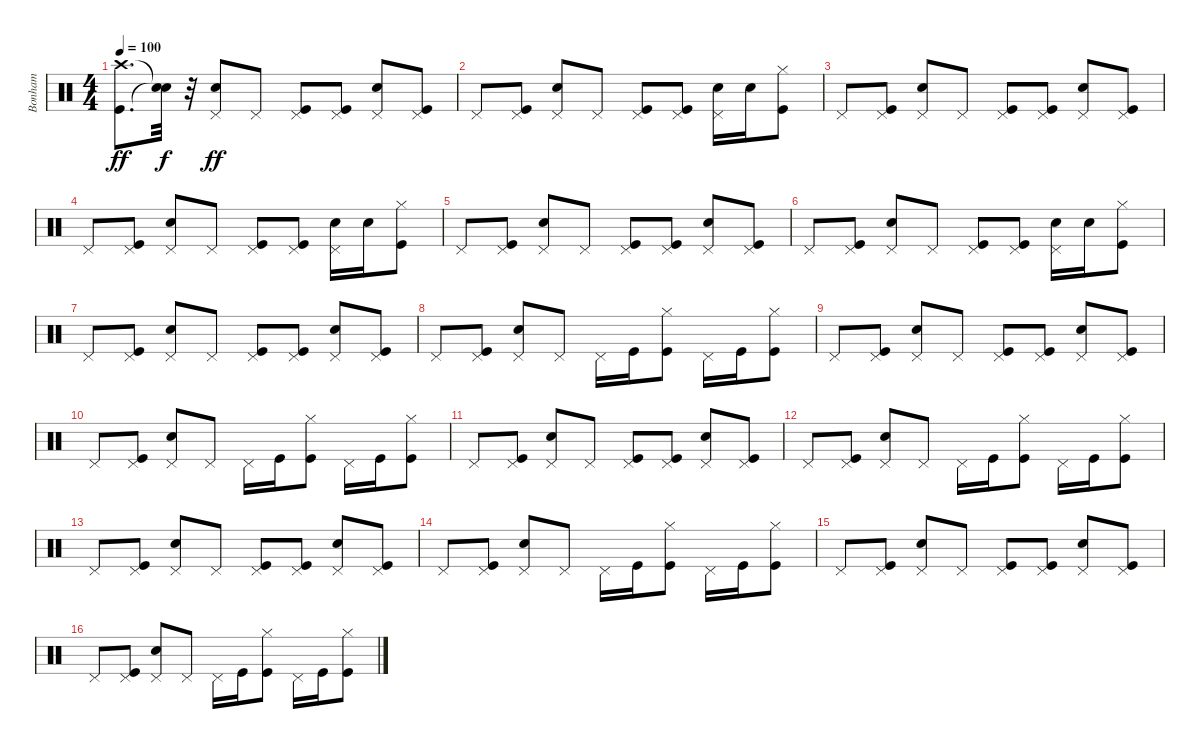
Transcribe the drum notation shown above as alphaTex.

\track ("Bonham" "Bonham") {instrument percussion}
\staff {score}
\articulation defaults
\ts (4 4)
\tempo 100
\clef neutral
\ks c
("Kick (hit)" "Crash high (hit)").8{d dy ff} ("Snare (hit)"{t} "Snare (hit)"{t}).32{dy f} r.32 ("Snare (hit) 2" "Pedal Hi-Hat (hit)").8{dy ff} "Pedal Hi-Hat (hit)".8 ("Kick (hit)" "Pedal Hi-Hat (hit)").8 ("Kick (hit)" "Pedal Hi-Hat (hit)").8 ("Snare (hit) 2" "Pedal Hi-Hat (hit)").8 ("Kick (hit)" "Pedal Hi-Hat (hit)").8 |
"Pedal Hi-Hat (hit)".8 ("Kick (hit)" "Pedal Hi-Hat (hit)").8 ("Snare (hit) 2" "Pedal Hi-Hat (hit)").8 "Pedal Hi-Hat (hit)".8 ("Kick (hit)" "Pedal Hi-Hat (hit)").8 ("Kick (hit)" "Pedal Hi-Hat (hit)").8 ("Snare (hit) 2" "Pedal Hi-Hat (hit)").16 "Snare (hit) 2".16 ("Kick (hit)" "Hi-Hat (closed)").8 |
"Pedal Hi-Hat (hit)".8 ("Kick (hit)" "Pedal Hi-Hat (hit)").8 ("Snare (hit) 2" "Pedal Hi-Hat (hit)").8 "Pedal Hi-Hat (hit)".8 ("Kick (hit)" "Pedal Hi-Hat (hit)").8 ("Kick (hit)" "Pedal Hi-Hat (hit)").8 ("Snare (hit) 2" "Pedal Hi-Hat (hit)").8 ("Kick (hit)" "Pedal Hi-Hat (hit)").8 |
"Pedal Hi-Hat (hit)".8 ("Kick (hit)" "Pedal Hi-Hat (hit)").8 ("Snare (hit) 2" "Pedal Hi-Hat (hit)").8 "Pedal Hi-Hat (hit)".8 ("Kick (hit)" "Pedal Hi-Hat (hit)").8 ("Kick (hit)" "Pedal Hi-Hat (hit)").8 ("Snare (hit) 2" "Pedal Hi-Hat (hit)").16 "Snare (hit) 2".16 ("Kick (hit)" "Hi-Hat (closed)").8 |
"Pedal Hi-Hat (hit)".8 ("Kick (hit)" "Pedal Hi-Hat (hit)").8 ("Snare (hit) 2" "Pedal Hi-Hat (hit)").8 "Pedal Hi-Hat (hit)".8 ("Kick (hit)" "Pedal Hi-Hat (hit)").8 ("Kick (hit)" "Pedal Hi-Hat (hit)").8 ("Snare (hit) 2" "Pedal Hi-Hat (hit)").8 ("Kick (hit)" "Pedal Hi-Hat (hit)").8 |
"Pedal Hi-Hat (hit)".8 ("Kick (hit)" "Pedal Hi-Hat (hit)").8 ("Snare (hit) 2" "Pedal Hi-Hat (hit)").8 "Pedal Hi-Hat (hit)".8 ("Kick (hit)" "Pedal Hi-Hat (hit)").8 ("Kick (hit)" "Pedal Hi-Hat (hit)").8 ("Snare (hit) 2" "Pedal Hi-Hat (hit)").16 "Snare (hit) 2".16 ("Kick (hit)" "Hi-Hat (closed)").8 |
"Pedal Hi-Hat (hit)".8 ("Kick (hit)" "Pedal Hi-Hat (hit)").8 ("Snare (hit) 2" "Pedal Hi-Hat (hit)").8 "Pedal Hi-Hat (hit)".8 ("Kick (hit)" "Pedal Hi-Hat (hit)").8 ("Kick (hit)" "Pedal Hi-Hat (hit)").8 ("Snare (hit) 2" "Pedal Hi-Hat (hit)").8 ("Kick (hit)" "Pedal Hi-Hat (hit)").8 |
"Pedal Hi-Hat (hit)".8 ("Kick (hit)" "Pedal Hi-Hat (hit)").8 ("Snare (hit) 2" "Pedal Hi-Hat (hit)").8 "Pedal Hi-Hat (hit)".8 "Pedal Hi-Hat (hit)".16 "Kick (hit)".16 ("Kick (hit)" "Hi-Hat (closed)").8 "Pedal Hi-Hat (hit)".16 "Kick (hit)".16 ("Kick (hit)" "Hi-Hat (closed)").8 |
"Pedal Hi-Hat (hit)".8 ("Kick (hit)" "Pedal Hi-Hat (hit)").8 ("Snare (hit) 2" "Pedal Hi-Hat (hit)").8 "Pedal Hi-Hat (hit)".8 ("Kick (hit)" "Pedal Hi-Hat (hit)").8 ("Kick (hit)" "Pedal Hi-Hat (hit)").8 ("Snare (hit) 2" "Pedal Hi-Hat (hit)").8 ("Kick (hit)" "Pedal Hi-Hat (hit)").8 |
"Pedal Hi-Hat (hit)".8 ("Kick (hit)" "Pedal Hi-Hat (hit)").8 ("Snare (hit) 2" "Pedal Hi-Hat (hit)").8 "Pedal Hi-Hat (hit)".8 "Pedal Hi-Hat (hit)".16 "Kick (hit)".16 ("Kick (hit)" "Hi-Hat (closed)").8 "Pedal Hi-Hat (hit)".16 "Kick (hit)".16 ("Kick (hit)" "Hi-Hat (closed)").8 |
"Pedal Hi-Hat (hit)".8 ("Kick (hit)" "Pedal Hi-Hat (hit)").8 ("Snare (hit) 2" "Pedal Hi-Hat (hit)").8 "Pedal Hi-Hat (hit)".8 ("Kick (hit)" "Pedal Hi-Hat (hit)").8 ("Kick (hit)" "Pedal Hi-Hat (hit)").8 ("Snare (hit) 2" "Pedal Hi-Hat (hit)").8 ("Kick (hit)" "Pedal Hi-Hat (hit)").8 |
"Pedal Hi-Hat (hit)".8 ("Kick (hit)" "Pedal Hi-Hat (hit)").8 ("Snare (hit) 2" "Pedal Hi-Hat (hit)").8 "Pedal Hi-Hat (hit)".8 "Pedal Hi-Hat (hit)".16 "Kick (hit)".16 ("Kick (hit)" "Hi-Hat (closed)").8 "Pedal Hi-Hat (hit)".16 "Kick (hit)".16 ("Kick (hit)" "Hi-Hat (closed)").8 |
"Pedal Hi-Hat (hit)".8 ("Kick (hit)" "Pedal Hi-Hat (hit)").8 ("Snare (hit) 2" "Pedal Hi-Hat (hit)").8 "Pedal Hi-Hat (hit)".8 ("Kick (hit)" "Pedal Hi-Hat (hit)").8 ("Kick (hit)" "Pedal Hi-Hat (hit)").8 ("Snare (hit) 2" "Pedal Hi-Hat (hit)").8 ("Kick (hit)" "Pedal Hi-Hat (hit)").8 |
"Pedal Hi-Hat (hit)".8 ("Kick (hit)" "Pedal Hi-Hat (hit)").8 ("Snare (hit) 2" "Pedal Hi-Hat (hit)").8 "Pedal Hi-Hat (hit)".8 "Pedal Hi-Hat (hit)".16 "Kick (hit)".16 ("Kick (hit)" "Hi-Hat (closed)").8 "Pedal Hi-Hat (hit)".16 "Kick (hit)".16 ("Kick (hit)" "Hi-Hat (closed)").8 |
"Pedal Hi-Hat (hit)".8 ("Kick (hit)" "Pedal Hi-Hat (hit)").8 ("Snare (hit) 2" "Pedal Hi-Hat (hit)").8 "Pedal Hi-Hat (hit)".8 ("Kick (hit)" "Pedal Hi-Hat (hit)").8 ("Kick (hit)" "Pedal Hi-Hat (hit)").8 ("Snare (hit) 2" "Pedal Hi-Hat (hit)").8 ("Kick (hit)" "Pedal Hi-Hat (hit)").8 |
"Pedal Hi-Hat (hit)".8 ("Kick (hit)" "Pedal Hi-Hat (hit)").8 ("Snare (hit) 2" "Pedal Hi-Hat (hit)").8 "Pedal Hi-Hat (hit)".8 "Pedal Hi-Hat (hit)".16 "Kick (hit)".16 ("Kick (hit)" "Hi-Hat (closed)").8 "Pedal Hi-Hat (hit)".16 "Kick (hit)".16 ("Kick (hit)" "Hi-Hat (closed)").8
